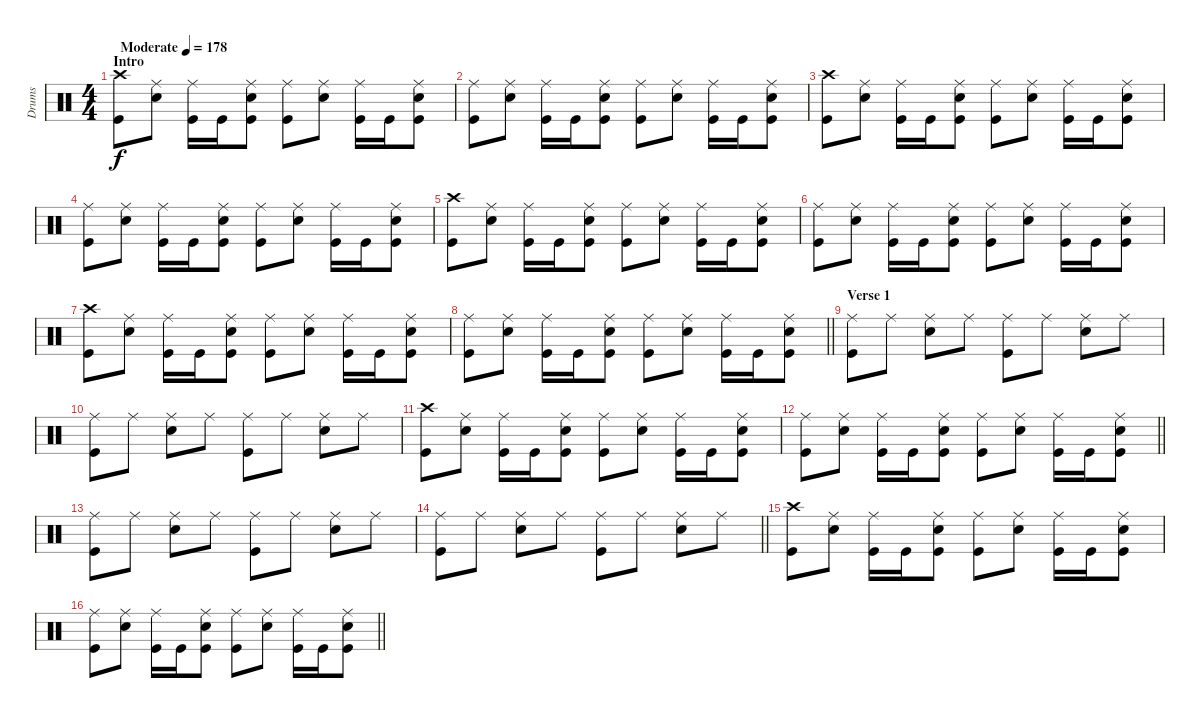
\track ("Drums" "Drums") {instrument percussion}
\staff {score}
\articulation defaults
\ts (4 4)
\section ("" "Intro")
\tempo (178 "Moderate")
\clef neutral
\ks c
("Kick (hit)" "Crash high (hit)").8{dy f} ("Snare (hit) 2" "Ride (middle)").8 ("Kick (hit)" "Ride (middle)").16 "Kick (hit)".16 ("Kick (hit)" "Ride (middle)" "Snare (hit) 2").8 ("Kick (hit)" "Ride (middle)").8 ("Snare (hit) 2" "Ride (middle)").8 ("Kick (hit)" "Ride (middle)").16 "Kick (hit)".16 ("Kick (hit)" "Ride (middle)" "Snare (hit) 2").8 |
("Kick (hit)" "Ride (middle)").8 ("Snare (hit) 2" "Ride (middle)").8 ("Kick (hit)" "Ride (middle)").16 "Kick (hit)".16 ("Kick (hit)" "Ride (middle)" "Snare (hit) 2").8 ("Kick (hit)" "Ride (middle)").8 ("Snare (hit) 2" "Ride (middle)").8 ("Kick (hit)" "Ride (middle)").16 "Kick (hit)".16 ("Kick (hit)" "Ride (middle)" "Snare (hit) 2").8 |
("Kick (hit)" "Crash high (hit)").8 ("Snare (hit) 2" "Ride (middle)").8 ("Kick (hit)" "Ride (middle)").16 "Kick (hit)".16 ("Kick (hit)" "Ride (middle)" "Snare (hit) 2").8 ("Kick (hit)" "Ride (middle)").8 ("Snare (hit) 2" "Ride (middle)").8 ("Kick (hit)" "Ride (middle)").16 "Kick (hit)".16 ("Kick (hit)" "Ride (middle)" "Snare (hit) 2").8 |
("Kick (hit)" "Ride (middle)").8 ("Snare (hit) 2" "Ride (middle)").8 ("Kick (hit)" "Ride (middle)").16 "Kick (hit)".16 ("Kick (hit)" "Ride (middle)" "Snare (hit) 2").8 ("Kick (hit)" "Ride (middle)").8 ("Snare (hit) 2" "Ride (middle)").8 ("Kick (hit)" "Ride (middle)").16 "Kick (hit)".16 ("Kick (hit)" "Ride (middle)" "Snare (hit) 2").8 |
("Kick (hit)" "Crash high (hit)").8 ("Snare (hit) 2" "Ride (middle)").8 ("Kick (hit)" "Ride (middle)").16 "Kick (hit)".16 ("Kick (hit)" "Ride (middle)" "Snare (hit) 2").8 ("Kick (hit)" "Ride (middle)").8 ("Snare (hit) 2" "Ride (middle)").8 ("Kick (hit)" "Ride (middle)").16 "Kick (hit)".16 ("Kick (hit)" "Ride (middle)" "Snare (hit) 2").8 |
("Kick (hit)" "Ride (middle)").8 ("Snare (hit) 2" "Ride (middle)").8 ("Kick (hit)" "Ride (middle)").16 "Kick (hit)".16 ("Kick (hit)" "Ride (middle)" "Snare (hit) 2").8 ("Kick (hit)" "Ride (middle)").8 ("Snare (hit) 2" "Ride (middle)").8 ("Kick (hit)" "Ride (middle)").16 "Kick (hit)".16 ("Kick (hit)" "Ride (middle)" "Snare (hit) 2").8 |
("Kick (hit)" "Crash high (hit)").8 ("Snare (hit) 2" "Ride (middle)").8 ("Kick (hit)" "Ride (middle)").16 "Kick (hit)".16 ("Kick (hit)" "Ride (middle)" "Snare (hit) 2").8 ("Kick (hit)" "Ride (middle)").8 ("Snare (hit) 2" "Ride (middle)").8 ("Kick (hit)" "Ride (middle)").16 "Kick (hit)".16 ("Kick (hit)" "Ride (middle)" "Snare (hit) 2").8 |
\barLineRight lightlight
("Kick (hit)" "Ride (middle)").8 ("Snare (hit) 2" "Ride (middle)").8 ("Kick (hit)" "Ride (middle)").16 "Kick (hit)".16 ("Kick (hit)" "Ride (middle)" "Snare (hit) 2").8 ("Kick (hit)" "Ride (middle)").8 ("Snare (hit) 2" "Ride (middle)").8 ("Kick (hit)" "Ride (middle)").16 "Kick (hit)".16 ("Kick (hit)" "Ride (middle)" "Snare (hit) 2").8 |
\section ("" "Verse 1")
("Kick (hit)" "Ride (middle)").8 "Ride (middle)".8 ("Ride (middle)" "Snare (hit) 2").8 "Ride (middle)".8 ("Ride (middle)" "Kick (hit)").8 "Ride (middle)".8 ("Ride (middle)" "Snare (hit) 2").8 "Ride (middle)".8 |
("Ride (middle)" "Kick (hit)").8 "Ride (middle)".8 ("Ride (middle)" "Snare (hit) 2").8 "Ride (middle)".8 ("Ride (middle)" "Kick (hit)").8 "Ride (middle)".8 ("Ride (middle)" "Snare (hit) 2").8 "Ride (middle)".8 |
("Kick (hit)" "Crash high (hit)").8 ("Snare (hit) 2" "Ride (middle)").8 ("Kick (hit)" "Ride (middle)").16 "Kick (hit)".16 ("Kick (hit)" "Ride (middle)" "Snare (hit) 2").8 ("Kick (hit)" "Ride (middle)").8 ("Snare (hit) 2" "Ride (middle)").8 ("Kick (hit)" "Ride (middle)").16 "Kick (hit)".16 ("Kick (hit)" "Ride (middle)" "Snare (hit) 2").8 |
\barLineRight lightlight
("Kick (hit)" "Ride (middle)").8 ("Snare (hit) 2" "Ride (middle)").8 ("Kick (hit)" "Ride (middle)").16 "Kick (hit)".16 ("Kick (hit)" "Ride (middle)" "Snare (hit) 2").8 ("Kick (hit)" "Ride (middle)").8 ("Snare (hit) 2" "Ride (middle)").8 ("Kick (hit)" "Ride (middle)").16 "Kick (hit)".16 ("Kick (hit)" "Ride (middle)" "Snare (hit) 2").8 |
("Kick (hit)" "Ride (middle)").8 "Ride (middle)".8 ("Ride (middle)" "Snare (hit) 2").8 "Ride (middle)".8 ("Ride (middle)" "Kick (hit)").8 "Ride (middle)".8 ("Ride (middle)" "Snare (hit) 2").8 "Ride (middle)".8 |
\barLineRight lightlight
("Ride (middle)" "Kick (hit)").8 "Ride (middle)".8 ("Ride (middle)" "Snare (hit) 2").8 "Ride (middle)".8 ("Ride (middle)" "Kick (hit)").8 "Ride (middle)".8 ("Ride (middle)" "Snare (hit) 2").8 "Ride (middle)".8 |
("Kick (hit)" "Crash high (hit)").8 ("Snare (hit) 2" "Ride (middle)").8 ("Kick (hit)" "Ride (middle)").16 "Kick (hit)".16 ("Kick (hit)" "Ride (middle)" "Snare (hit) 2").8 ("Kick (hit)" "Ride (middle)").8 ("Snare (hit) 2" "Ride (middle)").8 ("Kick (hit)" "Ride (middle)").16 "Kick (hit)".16 ("Kick (hit)" "Ride (middle)" "Snare (hit) 2").8 |
\barLineRight lightlight
("Kick (hit)" "Ride (middle)").8 ("Snare (hit) 2" "Ride (middle)").8 ("Kick (hit)" "Ride (middle)").16 "Kick (hit)".16 ("Kick (hit)" "Ride (middle)" "Snare (hit) 2").8 ("Kick (hit)" "Ride (middle)").8 ("Snare (hit) 2" "Ride (middle)").8 ("Kick (hit)" "Ride (middle)").16 "Kick (hit)".16 ("Kick (hit)" "Ride (middle)" "Snare (hit) 2").8
